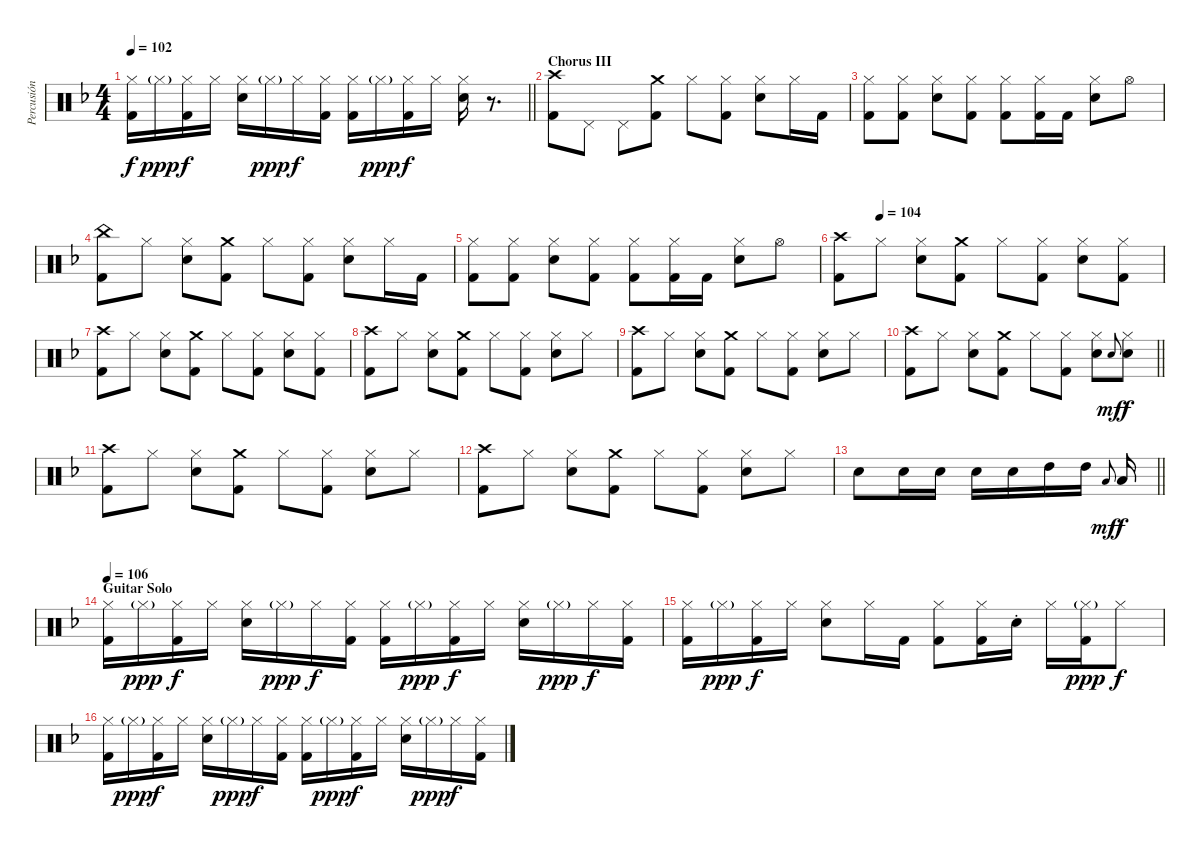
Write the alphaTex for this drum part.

\track ("Percusión" "Percusión") {instrument percussion}
\staff {score}
\articulation defaults
\ts (4 4)
\tempo 102
\clef neutral
\barLineRight lightlight
\ks f
("Hi-Hat (closed)" "Kick (hit) 2").16{dy f} "Hi-Hat (closed)"{g}.16{dy ppp} ("Hi-Hat (closed)" "Kick (hit) 2").16{dy f} "Hi-Hat (closed)".16 ("Hi-Hat (closed)" "Snare (hit) 2").16 "Hi-Hat (closed)"{g}.16{dy ppp} "Hi-Hat (closed)".16{dy f} ("Hi-Hat (closed)" "Kick (hit) 2").16 ("Hi-Hat (closed)" "Kick (hit) 2").16 "Hi-Hat (closed)"{g}.16{dy ppp} ("Hi-Hat (closed)" "Kick (hit) 2").16{dy f} "Hi-Hat (closed)".16 ("Hi-Hat (closed)" "Snare (hit) 2").16 r.8{d} |
\section ("" "Chorus III")
("Crash high (hit)" "Kick (hit) 2").8 "Pedal Hi-Hat (hit)".8 "Pedal Hi-Hat (hit)".8 ("Crash medium (hit)" "Kick (hit) 2").8 "Hi-Hat (closed)".8 ("Hi-Hat (closed)" "Kick (hit) 2").8 ("Hi-Hat (closed)" "Snare (hit) 2").8 "Hi-Hat (closed)".16 "Kick (hit) 2".16 |
("Hi-Hat (closed)" "Kick (hit) 2").8 ("Hi-Hat (closed)" "Kick (hit) 2").8 ("Hi-Hat (closed)" "Snare (hit) 2").8 ("Hi-Hat (closed)" "Kick (hit) 2").8 ("Hi-Hat (closed)" "Kick (hit) 2").8 ("Hi-Hat (closed)" "Kick (hit) 2").16 "Kick (hit) 2".16 ("Hi-Hat (closed)" "Electric Snare (hit)").8 "Hi-Hat (open)".8 |
("China (hit)" "Kick (hit) 2").8 "Hi-Hat (closed)".8 ("Hi-Hat (closed)" "Snare (hit) 2").8 ("Crash medium (hit)" "Kick (hit) 2").8 "Hi-Hat (closed)".8 ("Hi-Hat (closed)" "Kick (hit) 2").8 ("Hi-Hat (closed)" "Snare (hit) 2").8 "Hi-Hat (closed)".16 "Kick (hit) 2".16 |
("Hi-Hat (closed)" "Kick (hit) 2").8 ("Hi-Hat (closed)" "Kick (hit) 2").8 ("Hi-Hat (closed)" "Snare (hit) 2").8 ("Hi-Hat (closed)" "Kick (hit) 2").8 ("Hi-Hat (closed)" "Kick (hit) 2").8 ("Hi-Hat (closed)" "Kick (hit) 2").16 "Kick (hit) 2".16 ("Hi-Hat (closed)" "Electric Snare (hit)").8 "Hi-Hat (open)".8 |
\tempo (104 0.125)
("Crash high (hit)" "Kick (hit) 2").8 "Hi-Hat (closed)".8 ("Hi-Hat (closed)" "Snare (hit) 2").8 ("Crash medium (hit)" "Kick (hit) 2").8 "Hi-Hat (closed)".8 ("Hi-Hat (closed)" "Kick (hit) 2").8 ("Hi-Hat (closed)" "Snare (hit) 2").8 ("Hi-Hat (closed)" "Kick (hit) 2").8 |
("Crash high (hit)" "Kick (hit) 2").8 "Hi-Hat (closed)".8 ("Hi-Hat (closed)" "Snare (hit) 2").8 ("Crash medium (hit)" "Kick (hit) 2").8 "Hi-Hat (closed)".8 ("Hi-Hat (closed)" "Kick (hit) 2").8 ("Hi-Hat (closed)" "Snare (hit) 2").8 ("Hi-Hat (closed)" "Kick (hit) 2").8 |
("Crash high (hit)" "Kick (hit) 2").8 "Hi-Hat (closed)".8 ("Hi-Hat (closed)" "Snare (hit) 2").8 ("Crash medium (hit)" "Kick (hit) 2").8 "Hi-Hat (closed)".8 ("Hi-Hat (closed)" "Kick (hit) 2").8 ("Hi-Hat (closed)" "Snare (hit) 2").8 "Hi-Hat (closed)".8 |
("Crash high (hit)" "Kick (hit) 2").8 "Hi-Hat (closed)".8 ("Hi-Hat (closed)" "Snare (hit) 2").8 ("Crash medium (hit)" "Kick (hit) 2").8 "Hi-Hat (closed)".8 ("Hi-Hat (closed)" "Kick (hit) 2").8 ("Hi-Hat (closed)" "Snare (hit) 2").8 "Hi-Hat (closed)".8 |
\barLineRight lightlight
("Crash high (hit)" "Kick (hit) 2").8 "Hi-Hat (closed)".8 ("Hi-Hat (closed)" "Snare (hit) 2").8 ("Crash medium (hit)" "Kick (hit) 2").8 "Hi-Hat (closed)".8 ("Hi-Hat (closed)" "Kick (hit) 2").8 ("Hi-Hat (closed)" "Snare (hit) 2").8 "Snare (hit) 2"{h}.8{gr onbeat dy mf} ("Hi-Hat (closed)" "Snare (hit) 2").8{dy f} |
("Crash high (hit)" "Kick (hit) 2").8 "Hi-Hat (closed)".8 ("Hi-Hat (closed)" "Snare (hit) 2").8 ("Crash medium (hit)" "Kick (hit) 2").8 "Hi-Hat (closed)".8 ("Hi-Hat (closed)" "Kick (hit) 2").8 ("Hi-Hat (closed)" "Snare (hit) 2").8 "Hi-Hat (closed)".8 |
("Crash high (hit)" "Kick (hit) 2").8 "Hi-Hat (closed)".8 ("Hi-Hat (closed)" "Snare (hit) 2").8 ("Crash medium (hit)" "Kick (hit) 2").8 "Hi-Hat (closed)".8 ("Hi-Hat (closed)" "Kick (hit) 2").8 ("Hi-Hat (closed)" "Snare (hit) 2").8 "Hi-Hat (closed)".8 |
\barLineRight lightlight "Snare (hit) 2".8 "Snare (hit) 2".16 "Snare (hit) 2".16 "Snare (hit) 2".16 "Snare (hit) 2".16 "High Tom (hit)".16 "High Tom (hit)".16 "Low Floor Tom (hit)"{h}.8{gr onbeat dy mf} "Low Tom (hit)".16{dy f}
|
\section ("" "Guitar Solo")
\tempo 106
("Hi-Hat (closed)" "Kick (hit) 2").16 "Hi-Hat (closed)"{g}.16{dy ppp} ("Hi-Hat (closed)" "Kick (hit) 2").16{dy f} "Hi-Hat (closed)".16 ("Hi-Hat (closed)" "Snare (hit) 2").16 "Hi-Hat (closed)"{g}.16{dy ppp} "Hi-Hat (closed)".16{dy f} ("Hi-Hat (closed)" "Kick (hit) 2").16 ("Hi-Hat (closed)" "Kick (hit) 2").16 "Hi-Hat (closed)"{g}.16{dy ppp} ("Hi-Hat (closed)" "Kick (hit) 2").16{dy f} "Hi-Hat (closed)".16 ("Hi-Hat (closed)" "Snare (hit) 2").16 "Hi-Hat (closed)"{g}.16{dy ppp} "Hi-Hat (closed)".16{dy f} ("Hi-Hat (closed)" "Kick (hit) 2").16 |
("Hi-Hat (closed)" "Kick (hit) 2").16 "Hi-Hat (closed)"{g}.16{dy ppp} ("Hi-Hat (closed)" "Kick (hit) 2").16{dy f} "Hi-Hat (closed)".16 ("Hi-Hat (closed)" "Snare (hit) 2").8 "Hi-Hat (closed)".16 "Kick (hit) 2".16 ("Hi-Hat (closed)" "Kick (hit) 2").8 ("Hi-Hat (closed)" "Kick (hit) 2").16 "Snare (hit) 2"{st}.16 "Hi-Hat (closed)".16 ("Hi-Hat (closed)"{g} "Kick (hit) 2").16{dy ppp} "Hi-Hat (closed)".8{dy f} |
("Hi-Hat (closed)" "Kick (hit) 2").16 "Hi-Hat (closed)"{g}.16{dy ppp} ("Hi-Hat (closed)" "Kick (hit) 2").16{dy f} "Hi-Hat (closed)".16 ("Hi-Hat (closed)" "Snare (hit) 2").16 "Hi-Hat (closed)"{g}.16{dy ppp} "Hi-Hat (closed)".16{dy f} ("Hi-Hat (closed)" "Kick (hit) 2").16 ("Hi-Hat (closed)" "Kick (hit) 2").16 "Hi-Hat (closed)"{g}.16{dy ppp} ("Hi-Hat (closed)" "Kick (hit) 2").16{dy f} "Hi-Hat (closed)".16 ("Hi-Hat (closed)" "Snare (hit) 2").16 "Hi-Hat (closed)"{g}.16{dy ppp} "Hi-Hat (closed)".16{dy f} ("Hi-Hat (closed)" "Kick (hit) 2").16
